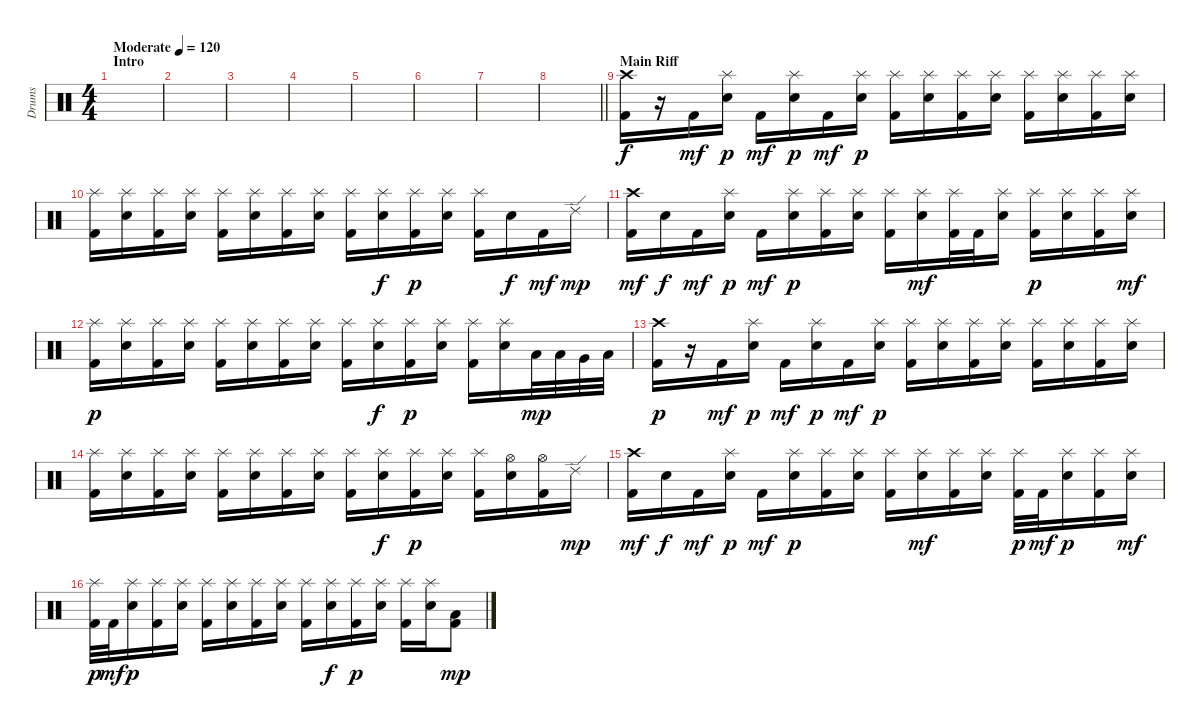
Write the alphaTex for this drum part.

\track ("Drums" "Drums") {instrument percussion}
\staff {score}
\articulation defaults
\ts (4 4)
\section ("" "Intro")
\tempo (120 "Moderate")
\tempo 110
\tempo (120 "Moderate")
\clef neutral
\ks c
|
|
|
|
|
|
|
\barLineRight lightlight
|
\section ("" "Main Riff")
("Kick (hit) 2" "Crash high (hit)").16 r.16 "Kick (hit) 2".16{dy mf} ("Splash (hit)" "Snare (hit) 2").16{dy p} "Kick (hit) 2".16{dy mf} ("Splash (hit)" "Snare (hit) 2").16{dy p} "Kick (hit) 2".16{dy mf} ("Splash (hit)" "Snare (hit) 2").16{dy p} ("Kick (hit) 2" "Splash (hit)").16 ("Splash (hit)" "Snare (hit) 2").16 ("Kick (hit) 2" "Splash (hit)").16 ("Splash (hit)" "Snare (hit) 2").16 ("Kick (hit) 2" "Splash (hit)").16 ("Splash (hit)" "Snare (hit) 2").16 ("Kick (hit) 2" "Splash (hit)").16 ("Splash (hit)" "Snare (hit) 2").16 |
("Kick (hit) 2" "Splash (hit)").16 ("Splash (hit)" "Snare (hit) 2").16 ("Kick (hit) 2" "Splash (hit)").16 ("Splash (hit)" "Snare (hit) 2").16 ("Kick (hit) 2" "Splash (hit)").16 ("Splash (hit)" "Snare (hit) 2").16 ("Kick (hit) 2" "Splash (hit)").16 ("Splash (hit)" "Snare (hit) 2").16 ("Kick (hit) 2" "Splash (hit)").16 ("Splash (hit)" "Snare (hit) 2").16{dy f} ("Kick (hit) 2" "Splash (hit)").16{dy p} ("Splash (hit)" "Snare (hit) 2").16 ("Kick (hit) 2" "Splash (hit)").16 "Snare (hit) 2".16{dy f} "Kick (hit) 2".16{dy mf} "Ride (edge) 2".16{dy mp} |
("Kick (hit) 2" "Crash high (hit)").16{dy mf} "Snare (hit) 2".16{dy f} "Kick (hit) 2".16{dy mf} ("Splash (hit)" "Snare (hit) 2").16{dy p} "Kick (hit) 2".16{dy mf} ("Splash (hit)" "Snare (hit) 2").16{dy p} ("Kick (hit) 2" "Splash (hit)").16 ("Splash (hit)" "Snare (hit) 2").16 ("Kick (hit) 2" "Splash (hit)").16 ("Splash (hit)" "Snare (hit) 2").16{dy mf} ("Kick (hit) 2" "Splash (hit)").32 "Kick (hit) 2".32 ("Splash (hit)" "Snare (hit) 2").16 ("Kick (hit) 2" "Splash (hit)").16{dy p} ("Splash (hit)" "Snare (hit) 2").16 ("Kick (hit) 2" "Splash (hit)").16 ("Splash (hit)" "Snare (hit) 2").16{dy mf} |
("Kick (hit) 2" "Splash (hit)").16{dy p} ("Splash (hit)" "Snare (hit) 2").16 ("Kick (hit) 2" "Splash (hit)").16 ("Splash (hit)" "Snare (hit) 2").16 ("Kick (hit) 2" "Splash (hit)").16 ("Splash (hit)" "Snare (hit) 2").16 ("Kick (hit) 2" "Splash (hit)").16 ("Splash (hit)" "Snare (hit) 2").16 ("Kick (hit) 2" "Splash (hit)").16 ("Splash (hit)" "Snare (hit) 2").16{dy f} ("Kick (hit) 2" "Splash (hit)").16{dy p} ("Splash (hit)" "Snare (hit) 2").16 ("Kick (hit) 2" "Splash (hit)").16 ("Splash (hit)" "Snare (hit) 2").16 "Low Tom (hit)".32{dy mp} "Low Tom (hit)".32 "Very Low Tom (hit)".32 "Low Floor Tom (hit)".32 |
("Kick (hit) 2" "Crash high (hit)").16{dy p} r.16 "Kick (hit) 2".16{dy mf} ("Splash (hit)" "Snare (hit) 2").16{dy p} "Kick (hit) 2".16{dy mf} ("Splash (hit)" "Snare (hit) 2").16{dy p} "Kick (hit) 2".16{dy mf} ("Splash (hit)" "Snare (hit) 2").16{dy p} ("Kick (hit) 2" "Splash (hit)").16 ("Splash (hit)" "Snare (hit) 2").16 ("Kick (hit) 2" "Splash (hit)").16 ("Splash (hit)" "Snare (hit) 2").16 ("Kick (hit) 2" "Splash (hit)").16 ("Splash (hit)" "Snare (hit) 2").16 ("Kick (hit) 2" "Splash (hit)").16 ("Splash (hit)" "Snare (hit) 2").16 |
("Kick (hit) 2" "Splash (hit)").16 ("Splash (hit)" "Snare (hit) 2").16 ("Kick (hit) 2" "Splash (hit)").16 ("Splash (hit)" "Snare (hit) 2").16 ("Kick (hit) 2" "Splash (hit)").16 ("Splash (hit)" "Snare (hit) 2").16 ("Kick (hit) 2" "Splash (hit)").16 ("Splash (hit)" "Snare (hit) 2").16 ("Kick (hit) 2" "Splash (hit)").16 ("Splash (hit)" "Snare (hit) 2").16{dy f} ("Kick (hit) 2" "Splash (hit)").16{dy p} ("Splash (hit)" "Snare (hit) 2").16 ("Kick (hit) 2" "Splash (hit)").16 ("Hi-Hat (open)" "Snare (hit) 2").16 ("Kick (hit) 2" "Hi-Hat (open)").16 "Ride (edge) 2".16{dy mp} |
("Kick (hit) 2" "Crash high (hit)").16{dy mf} "Snare (hit) 2".16{dy f} "Kick (hit) 2".16{dy mf} ("Splash (hit)" "Snare (hit) 2").16{dy p} "Kick (hit) 2".16{dy mf} ("Splash (hit)" "Snare (hit) 2").16{dy p} ("Kick (hit) 2" "Splash (hit)").16 ("Splash (hit)" "Snare (hit) 2").16 ("Kick (hit) 2" "Splash (hit)").16 ("Splash (hit)" "Snare (hit) 2").16{dy mf} ("Kick (hit) 2" "Splash (hit)").16 ("Splash (hit)" "Snare (hit) 2").16 ("Kick (hit) 2" "Splash (hit)").32{dy p} "Kick (hit) 2".32{dy mf} ("Splash (hit)" "Snare (hit) 2").16{dy p} ("Kick (hit) 2" "Splash (hit)").16 ("Splash (hit)" "Snare (hit) 2").16{dy mf} |
("Kick (hit) 2" "Splash (hit)").32{dy p} "Kick (hit) 2".32{dy mf} ("Splash (hit)" "Snare (hit) 2").16{dy p} ("Kick (hit) 2" "Splash (hit)").16 ("Splash (hit)" "Snare (hit) 2").16 ("Kick (hit) 2" "Splash (hit)").16 ("Splash (hit)" "Snare (hit) 2").16 ("Kick (hit) 2" "Splash (hit)").16 ("Splash (hit)" "Snare (hit) 2").16 ("Kick (hit) 2" "Splash (hit)").16 ("Splash (hit)" "Snare (hit) 2").16{dy f} ("Kick (hit) 2" "Splash (hit)").16{dy p} ("Splash (hit)" "Snare (hit) 2").16 ("Kick (hit) 2" "Splash (hit)").16 ("Splash (hit)" "Snare (hit) 2").16 ("Kick (hit) 2" "Low Tom (hit)").8{dy mp}
